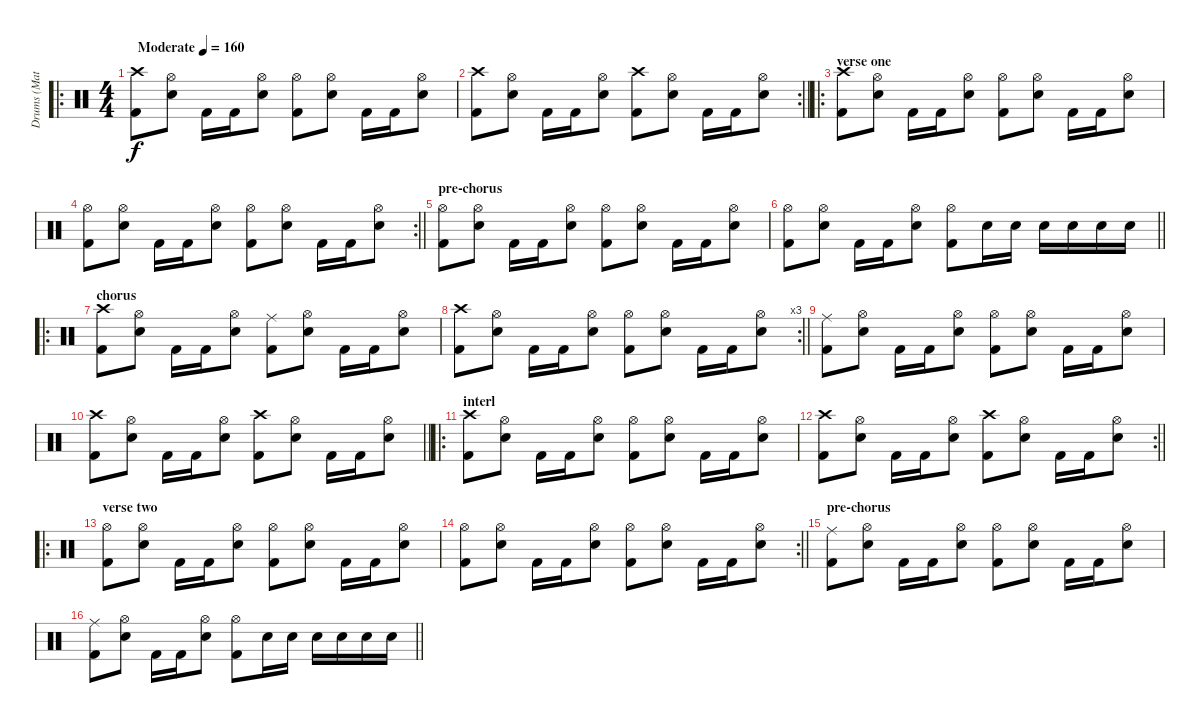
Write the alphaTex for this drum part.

\track ("Drums (Matt/Chris)" "Drums (Mat") {instrument percussion}
\staff {score}
\articulation defaults
\ro
\ts (4 4)
\tempo (160 "Moderate")
\clef neutral
\ks c
("Crash high (hit)" "Kick (hit) 2").8{dy f} ("Hi-Hat (open)" "Snare (hit) 2").8 "Kick (hit) 2".16 "Kick (hit) 2".16 ("Hi-Hat (open)" "Snare (hit) 2").8 ("Hi-Hat (open)" "Kick (hit) 2").8 ("Hi-Hat (open)" "Snare (hit) 2").8 "Kick (hit) 2".16 "Kick (hit) 2".16 ("Hi-Hat (open)" "Snare (hit) 2").8 |
\rc 2
\barLineRight lightlight
("Crash high (hit)" "Kick (hit) 2").8 ("Hi-Hat (open)" "Snare (hit) 2").8 "Kick (hit) 2".16 "Kick (hit) 2".16 ("Hi-Hat (open)" "Snare (hit) 2").8 ("Crash high (hit)" "Kick (hit) 2").8 ("Hi-Hat (open)" "Snare (hit) 2").8 "Kick (hit) 2".16 "Kick (hit) 2".16 ("Hi-Hat (open)" "Snare (hit) 2").8 |
\ro
\section ("" "verse one")
("Crash high (hit)" "Kick (hit) 2").8 ("Hi-Hat (open)" "Snare (hit) 2").8 "Kick (hit) 2".16 "Kick (hit) 2".16 ("Hi-Hat (open)" "Snare (hit) 2").8 ("Hi-Hat (open)" "Kick (hit) 2").8 ("Hi-Hat (open)" "Snare (hit) 2").8 "Kick (hit) 2".16 "Kick (hit) 2".16 ("Hi-Hat (open)" "Snare (hit) 2").8 |
\rc 2
\barLineRight lightlight
("Hi-Hat (open)" "Kick (hit) 2").8 ("Hi-Hat (open)" "Snare (hit) 2").8 "Kick (hit) 2".16 "Kick (hit) 2".16 ("Hi-Hat (open)" "Snare (hit) 2").8 ("Hi-Hat (open)" "Kick (hit) 2").8 ("Hi-Hat (open)" "Snare (hit) 2").8 "Kick (hit) 2".16 "Kick (hit) 2".16 ("Hi-Hat (open)" "Snare (hit) 2").8 |
\section ("" "pre-chorus")
("Hi-Hat (open)" "Kick (hit) 2").8 ("Hi-Hat (open)" "Snare (hit) 2").8 "Kick (hit) 2".16 "Kick (hit) 2".16 ("Hi-Hat (open)" "Snare (hit) 2").8 ("Hi-Hat (open)" "Kick (hit) 2").8 ("Hi-Hat (open)" "Snare (hit) 2").8 "Kick (hit) 2".16 "Kick (hit) 2".16 ("Hi-Hat (open)" "Snare (hit) 2").8 |
\barLineRight lightlight
("Hi-Hat (open)" "Kick (hit) 2").8 ("Hi-Hat (open)" "Snare (hit) 2").8 "Kick (hit) 2".16 "Kick (hit) 2".16 ("Hi-Hat (open)" "Snare (hit) 2").8 ("Hi-Hat (open)" "Kick (hit) 2").8 "Snare (hit) 2".16 "Snare (hit) 2".16 "Snare (hit) 2".16 "Snare (hit) 2".16 "Snare (hit) 2".16 "Snare (hit) 2".16 |
\ro
\section ("" "chorus")
("Crash high (hit)" "Kick (hit) 2").8 ("Hi-Hat (open)" "Snare (hit) 2").8 "Kick (hit) 2".16 "Kick (hit) 2".16 ("Hi-Hat (open)" "Snare (hit) 2").8 ("Ride (middle)" "Kick (hit) 2").8 ("Hi-Hat (open)" "Snare (hit) 2").8 "Kick (hit) 2".16 "Kick (hit) 2".16 ("Hi-Hat (open)" "Snare (hit) 2").8 |
\rc 3
\barLineRight lightlight
("Crash high (hit)" "Kick (hit) 2").8 ("Hi-Hat (open)" "Snare (hit) 2").8 "Kick (hit) 2".16 "Kick (hit) 2".16 ("Hi-Hat (open)" "Snare (hit) 2").8 ("Hi-Hat (open)" "Kick (hit) 2").8 ("Hi-Hat (open)" "Snare (hit) 2").8 "Kick (hit) 2".16 "Kick (hit) 2".16 ("Hi-Hat (open)" "Snare (hit) 2").8 |
("Ride (middle)" "Kick (hit) 2").8 ("Hi-Hat (open)" "Snare (hit) 2").8 "Kick (hit) 2".16 "Kick (hit) 2".16 ("Hi-Hat (open)" "Snare (hit) 2").8 ("Hi-Hat (open)" "Kick (hit) 2").8 ("Hi-Hat (open)" "Snare (hit) 2").8 "Kick (hit) 2".16 "Kick (hit) 2".16 ("Hi-Hat (open)" "Snare (hit) 2").8 |
\barLineRight lightlight
("Crash high (hit)" "Kick (hit) 2").8 ("Hi-Hat (open)" "Snare (hit) 2").8 "Kick (hit) 2".16 "Kick (hit) 2".16 ("Hi-Hat (open)" "Snare (hit) 2").8 ("Crash high (hit)" "Kick (hit) 2").8 ("Hi-Hat (open)" "Snare (hit) 2").8 "Kick (hit) 2".16 "Kick (hit) 2".16 ("Hi-Hat (open)" "Snare (hit) 2").8 |
\ro
\section ("" "interl")
("Crash high (hit)" "Kick (hit) 2").8 ("Hi-Hat (open)" "Snare (hit) 2").8 "Kick (hit) 2".16 "Kick (hit) 2".16 ("Hi-Hat (open)" "Snare (hit) 2").8 ("Hi-Hat (open)" "Kick (hit) 2").8 ("Hi-Hat (open)" "Snare (hit) 2").8 "Kick (hit) 2".16 "Kick (hit) 2".16 ("Hi-Hat (open)" "Snare (hit) 2").8 |
\rc 2
\barLineRight lightlight
("Crash high (hit)" "Kick (hit) 2").8 ("Hi-Hat (open)" "Snare (hit) 2").8 "Kick (hit) 2".16 "Kick (hit) 2".16 ("Hi-Hat (open)" "Snare (hit) 2").8 ("Crash high (hit)" "Kick (hit) 2").8 ("Hi-Hat (open)" "Snare (hit) 2").8 "Kick (hit) 2".16 "Kick (hit) 2".16 ("Hi-Hat (open)" "Snare (hit) 2").8 |
\ro
\section ("" "verse two")
("Hi-Hat (open)" "Kick (hit) 2").8 ("Hi-Hat (open)" "Snare (hit) 2").8 "Kick (hit) 2".16 "Kick (hit) 2".16 ("Hi-Hat (open)" "Snare (hit) 2").8 ("Hi-Hat (open)" "Kick (hit) 2").8 ("Hi-Hat (open)" "Snare (hit) 2").8 "Kick (hit) 2".16 "Kick (hit) 2".16 ("Hi-Hat (open)" "Snare (hit) 2").8 |
\rc 2
\barLineRight lightlight
("Hi-Hat (open)" "Kick (hit) 2").8 ("Hi-Hat (open)" "Snare (hit) 2").8 "Kick (hit) 2".16 "Kick (hit) 2".16 ("Hi-Hat (open)" "Snare (hit) 2").8 ("Hi-Hat (open)" "Kick (hit) 2").8 ("Hi-Hat (open)" "Snare (hit) 2").8 "Kick (hit) 2".16 "Kick (hit) 2".16 ("Hi-Hat (open)" "Snare (hit) 2").8 |
\section ("" "pre-chorus")
("Ride (middle)" "Kick (hit) 2").8 ("Hi-Hat (open)" "Snare (hit) 2").8 "Kick (hit) 2".16 "Kick (hit) 2".16 ("Hi-Hat (open)" "Snare (hit) 2").8 ("Hi-Hat (open)" "Kick (hit) 2").8 ("Hi-Hat (open)" "Snare (hit) 2").8 "Kick (hit) 2".16 "Kick (hit) 2".16 ("Hi-Hat (open)" "Snare (hit) 2").8 |
\barLineRight lightlight
("Ride (middle)" "Kick (hit) 2").8 ("Hi-Hat (open)" "Snare (hit) 2").8 "Kick (hit) 2".16 "Kick (hit) 2".16 ("Hi-Hat (open)" "Snare (hit) 2").8 ("Hi-Hat (open)" "Kick (hit) 2").8 "Snare (hit) 2".16 "Snare (hit) 2".16 "Snare (hit) 2".16 "Snare (hit) 2".16 "Snare (hit) 2".16 "Snare (hit) 2".16
